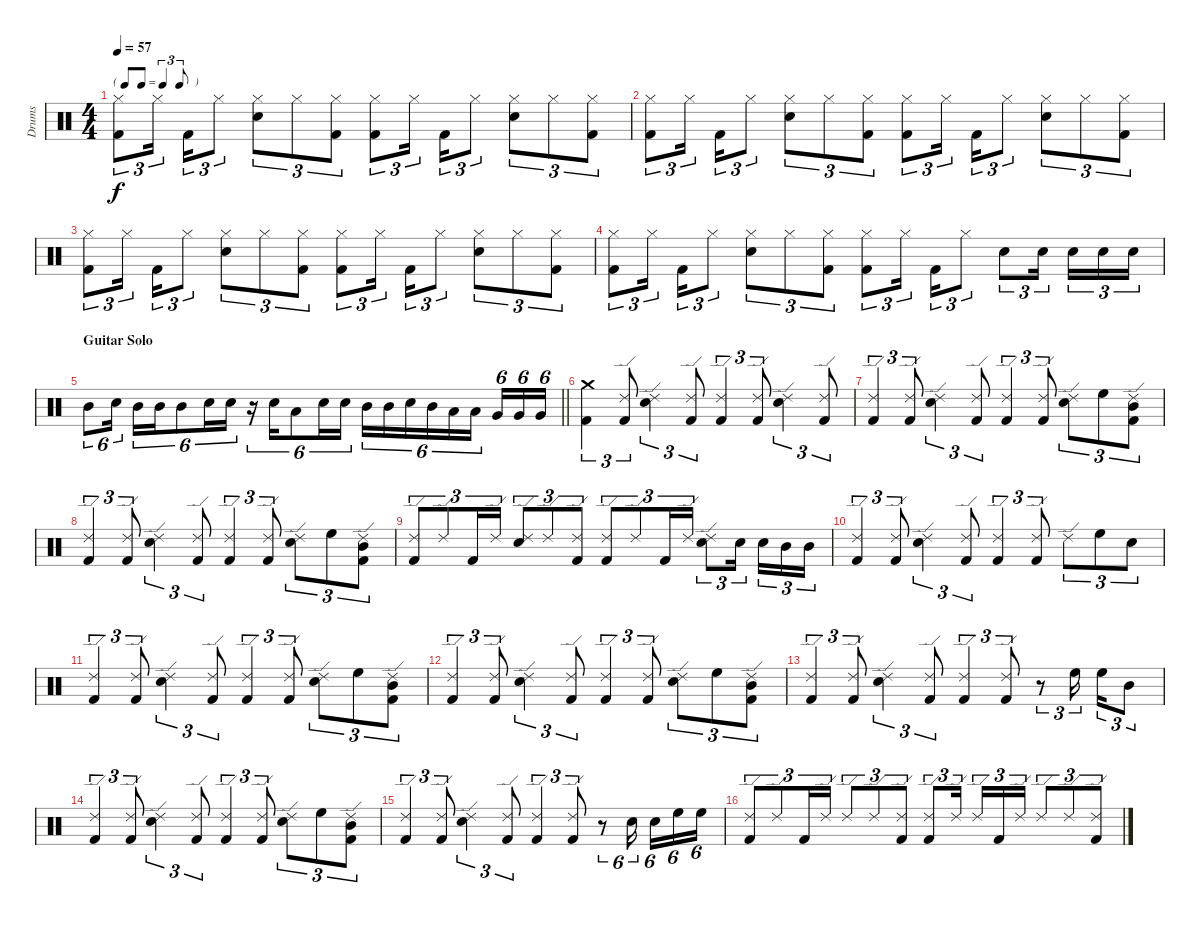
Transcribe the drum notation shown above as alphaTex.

\track ("Drums" "Drums") {instrument percussion}
\staff {score}
\articulation defaults
\ts (4 4)
\tf triplet8th
\tempo 57
\clef neutral
\ks c
("Hi-Hat (closed)" "Kick (hit) 2").8{tu (3 2) dy f} "Hi-Hat (closed)".16{tu (3 2)} "Kick (hit) 2".16{tu (3 2)} "Hi-Hat (closed)".8{tu (3 2)} ("Hi-Hat (closed)" "Snare (hit) 2").8{tu (3 2)} "Hi-Hat (closed)".8{tu (3 2)} ("Hi-Hat (closed)" "Kick (hit) 2").8{tu (3 2)} ("Hi-Hat (closed)" "Kick (hit) 2").8{tu (3 2)} "Hi-Hat (closed)".16{tu (3 2)} "Kick (hit) 2".16{tu (3 2)} "Hi-Hat (closed)".8{tu (3 2)} ("Hi-Hat (closed)" "Snare (hit) 2").8{tu (3 2)} "Hi-Hat (closed)".8{tu (3 2)} ("Hi-Hat (closed)" "Kick (hit) 2").8{tu (3 2)} |
("Hi-Hat (closed)" "Kick (hit) 2").8{tu (3 2)} "Hi-Hat (closed)".16{tu (3 2)} "Kick (hit) 2".16{tu (3 2)} "Hi-Hat (closed)".8{tu (3 2)} ("Hi-Hat (closed)" "Snare (hit) 2").8{tu (3 2)} "Hi-Hat (closed)".8{tu (3 2)} ("Hi-Hat (closed)" "Kick (hit) 2").8{tu (3 2)} ("Hi-Hat (closed)" "Kick (hit) 2").8{tu (3 2)} "Hi-Hat (closed)".16{tu (3 2)} "Kick (hit) 2".16{tu (3 2)} "Hi-Hat (closed)".8{tu (3 2)} ("Hi-Hat (closed)" "Snare (hit) 2").8{tu (3 2)} "Hi-Hat (closed)".8{tu (3 2)} ("Hi-Hat (closed)" "Kick (hit) 2").8{tu (3 2)} |
("Hi-Hat (closed)" "Kick (hit) 2").8{tu (3 2)} "Hi-Hat (closed)".16{tu (3 2)} "Kick (hit) 2".16{tu (3 2)} "Hi-Hat (closed)".8{tu (3 2)} ("Hi-Hat (closed)" "Snare (hit) 2").8{tu (3 2)} "Hi-Hat (closed)".8{tu (3 2)} ("Hi-Hat (closed)" "Kick (hit) 2").8{tu (3 2)} ("Hi-Hat (closed)" "Kick (hit) 2").8{tu (3 2)} "Hi-Hat (closed)".16{tu (3 2)} "Kick (hit) 2".16{tu (3 2)} "Hi-Hat (closed)".8{tu (3 2)} ("Hi-Hat (closed)" "Snare (hit) 2").8{tu (3 2)} "Hi-Hat (closed)".8{tu (3 2)} ("Hi-Hat (closed)" "Kick (hit) 2").8{tu (3 2)} |
("Hi-Hat (closed)" "Kick (hit) 2").8{tu (3 2)} "Hi-Hat (closed)".16{tu (3 2)} "Kick (hit) 2".16{tu (3 2)} "Hi-Hat (closed)".8{tu (3 2)} ("Hi-Hat (closed)" "Snare (hit) 2").8{tu (3 2)} "Hi-Hat (closed)".8{tu (3 2)} ("Hi-Hat (closed)" "Kick (hit) 2").8{tu (3 2)} ("Hi-Hat (closed)" "Kick (hit) 2").8{tu (3 2)} "Hi-Hat (closed)".16{tu (3 2)} "Kick (hit) 2".16{tu (3 2)} "Hi-Hat (closed)".8{tu (3 2)} "Snare (hit) 2".8{tu (3 2)} "Snare (hit) 2".16{tu (3 2)} "Snare (hit) 2".16{tu (3 2)} "Snare (hit) 2".16{tu (3 2)} "Snare (hit) 2".16{tu (3 2)} |
\section ("" "Guitar Solo")
\barLineRight lightlight "Mid Tom (hit)".8{tu (6 4)} "Snare (hit) 2".16{tu (6 4)} "Mid Tom (hit)".16{tu (6 4)} "Mid Tom (hit)".16{tu (6 4)} "Mid Tom (hit)".8{tu (6 4)} "Snare (hit) 2".16{tu (6 4)} "Snare (hit) 2".16{tu (6 4)}
r.16{tu (6 4)} "Snare (hit) 2".16{tu (6 4)} "Low Tom (hit)".8{tu (6 4)} "Snare (hit) 2".16{tu (6 4)} "Snare (hit) 2".16{tu (6 4)} "Mid Tom (hit)".16{tu (6 4)} "Mid Tom (hit)".16{tu (6 4)} "Snare (hit) 2".16{tu (6 4)} "Mid Tom (hit)".16{tu (6 4)} "Low Tom (hit)".16{tu (6 4)} "Low Tom (hit)".16{tu (6 4)} "Very Low Tom (hit)".16{tu (6 4)} "Very Low Tom (hit)".16{tu (6 4)} "Very Low Tom (hit)".16{tu (6 4)} |
("Crash medium (hit)" "Kick (hit) 2").4{tu (3 2)} ("Ride (edge) 2" "Kick (hit) 2").8{tu (3 2)} ("Ride (edge) 2" "Snare (hit) 2").4{tu (3 2)} ("Ride (edge) 2" "Kick (hit) 2").8{tu (3 2)} ("Ride (edge) 2" "Kick (hit) 2").4{tu (3 2)} ("Ride (edge) 2" "Kick (hit) 2").8{tu (3 2)} ("Ride (edge) 2" "Snare (hit) 2").4{tu (3 2)} ("Ride (edge) 2" "Kick (hit) 2").8{tu (3 2)} |
("Ride (edge) 2" "Kick (hit) 2").4{tu (3 2)} ("Ride (edge) 2" "Kick (hit) 2").8{tu (3 2)} ("Ride (edge) 2" "Snare (hit) 2").4{tu (3 2)} ("Ride (edge) 2" "Kick (hit) 2").8{tu (3 2)} ("Ride (edge) 2" "Kick (hit) 2").4{tu (3 2)} ("Ride (edge) 2" "Kick (hit) 2").8{tu (3 2)} ("Ride (edge) 2" "Snare (hit) 2").8{tu (3 2)} "High Floor Tom (hit)".8{tu (3 2)} ("Ride (edge) 2" "Mid Tom (hit)" "Kick (hit) 2").8{tu (3 2)} |
("Ride (edge) 2" "Kick (hit) 2").4{tu (3 2)} ("Ride (edge) 2" "Kick (hit) 2").8{tu (3 2)} ("Ride (edge) 2" "Snare (hit) 2").4{tu (3 2)} ("Ride (edge) 2" "Kick (hit) 2").8{tu (3 2)} ("Ride (edge) 2" "Kick (hit) 2").4{tu (3 2)} ("Ride (edge) 2" "Kick (hit) 2").8{tu (3 2)} ("Ride (edge) 2" "Snare (hit) 2").8{tu (3 2)} "High Floor Tom (hit)".8{tu (3 2)} ("Ride (edge) 2" "Mid Tom (hit)" "Kick (hit) 2").8{tu (3 2)} |
("Ride (edge) 2" "Kick (hit) 2").8{tu (3 2)} "Ride (edge) 2".8{tu (3 2)} "Kick (hit) 2".16{tu (3 2)} "Ride (edge) 2".16{tu (3 2)} ("Ride (edge) 2" "Snare (hit) 2").8{tu (3 2)} "Ride (edge) 2".8{tu (3 2)} ("Ride (edge) 2" "Kick (hit) 2").8{tu (3 2)} ("Ride (edge) 2" "Kick (hit) 2").8{tu (3 2)} "Ride (edge) 2".8{tu (3 2)} "Kick (hit) 2".16{tu (3 2)} "Ride (edge) 2".16{tu (3 2)} ("Ride (edge) 2" "Snare (hit) 2").8{tu (3 2)} "Snare (hit) 2".16{tu (3 2)} "Snare (hit) 2".16{tu (3 2)} "Mid Tom (hit)".16{tu (3 2)} "Mid Tom (hit)".16{tu (3 2)} |
("Ride (edge) 2" "Kick (hit) 2").4{tu (3 2)} ("Ride (edge) 2" "Kick (hit) 2").8{tu (3 2)} ("Ride (edge) 2" "Snare (hit) 2").4{tu (3 2)} ("Ride (edge) 2" "Kick (hit) 2").8{tu (3 2)} ("Ride (edge) 2" "Kick (hit) 2").4{tu (3 2)} ("Ride (edge) 2" "Kick (hit) 2").8{tu (3 2)} "Ride (edge) 2".8{tu (3 2)} "High Floor Tom (hit)".8{tu (3 2)} "Snare (hit) 2".8{tu (3 2)} |
("Ride (edge) 2" "Kick (hit) 2").4{tu (3 2)} ("Ride (edge) 2" "Kick (hit) 2").8{tu (3 2)} ("Ride (edge) 2" "Snare (hit) 2").4{tu (3 2)} ("Ride (edge) 2" "Kick (hit) 2").8{tu (3 2)} ("Ride (edge) 2" "Kick (hit) 2").4{tu (3 2)} ("Ride (edge) 2" "Kick (hit) 2").8{tu (3 2)} ("Ride (edge) 2" "Snare (hit) 2").8{tu (3 2)} "High Floor Tom (hit)".8{tu (3 2)} ("Ride (edge) 2" "Mid Tom (hit)" "Kick (hit) 2").8{tu (3 2)} |
("Ride (edge) 2" "Kick (hit) 2").4{tu (3 2)} ("Ride (edge) 2" "Kick (hit) 2").8{tu (3 2)} ("Ride (edge) 2" "Snare (hit) 2").4{tu (3 2)} ("Ride (edge) 2" "Kick (hit) 2").8{tu (3 2)} ("Ride (edge) 2" "Kick (hit) 2").4{tu (3 2)} ("Ride (edge) 2" "Kick (hit) 2").8{tu (3 2)} ("Ride (edge) 2" "Snare (hit) 2").8{tu (3 2)} "High Floor Tom (hit)".8{tu (3 2)} ("Ride (edge) 2" "Mid Tom (hit)" "Kick (hit) 2").8{tu (3 2)} |
("Ride (edge) 2" "Kick (hit) 2").4{tu (3 2)} ("Ride (edge) 2" "Kick (hit) 2").8{tu (3 2)} ("Ride (edge) 2" "Snare (hit) 2").4{tu (3 2)} ("Ride (edge) 2" "Kick (hit) 2").8{tu (3 2)} ("Ride (edge) 2" "Kick (hit) 2").4{tu (3 2)} ("Ride (edge) 2" "Kick (hit) 2").8{tu (3 2)} r.8{tu (3 2)} "High Floor Tom (hit)".16{tu (3 2)} "High Floor Tom (hit)".16{tu (3 2)} "Mid Tom (hit)".8{tu (3 2)} |
("Ride (edge) 2" "Kick (hit) 2").4{tu (3 2)} ("Ride (edge) 2" "Kick (hit) 2").8{tu (3 2)} ("Ride (edge) 2" "Snare (hit) 2").4{tu (3 2)} ("Ride (edge) 2" "Kick (hit) 2").8{tu (3 2)} ("Ride (edge) 2" "Kick (hit) 2").4{tu (3 2)} ("Ride (edge) 2" "Kick (hit) 2").8{tu (3 2)} ("Ride (edge) 2" "Snare (hit) 2").8{tu (3 2)} "High Floor Tom (hit)".8{tu (3 2)} ("Ride (edge) 2" "Mid Tom (hit)" "Kick (hit) 2").8{tu (3 2)} |
("Ride (edge) 2" "Kick (hit) 2").4{tu (3 2)} ("Ride (edge) 2" "Kick (hit) 2").8{tu (3 2)} ("Ride (edge) 2" "Snare (hit) 2").4{tu (3 2)} ("Ride (edge) 2" "Kick (hit) 2").8{tu (3 2)} ("Ride (edge) 2" "Kick (hit) 2").4{tu (3 2)} ("Ride (edge) 2" "Kick (hit) 2").8{tu (3 2)} r.8{tu (6 4)} "Snare (hit) 2".16{tu (6 4)} "Snare (hit) 2".16{tu (6 4)} "High Floor Tom (hit)".16{tu (6 4)} "High Floor Tom (hit)".16{tu (6 4)} |
("Ride (edge) 2" "Kick (hit) 2").8{tu (3 2)} "Ride (edge) 2".8{tu (3 2)} "Kick (hit) 2".16{tu (3 2)} "Ride (edge) 2".16{tu (3 2)} "Ride (edge) 2".8{tu (3 2)} "Ride (edge) 2".8{tu (3 2)} ("Ride (edge) 2" "Kick (hit) 2").8{tu (3 2)} ("Ride (edge) 2" "Kick (hit) 2").8{tu (3 2)} "Ride (edge) 2".16{tu (3 2)} "Ride (edge) 2".16{tu (3 2)} "Kick (hit) 2".16{tu (3 2)} "Ride (edge) 2".16{tu (3 2)} "Ride (edge) 2".8{tu (3 2)} "Ride (edge) 2".8{tu (3 2)} ("Ride (edge) 2" "Kick (hit) 2").8{tu (3 2)}
